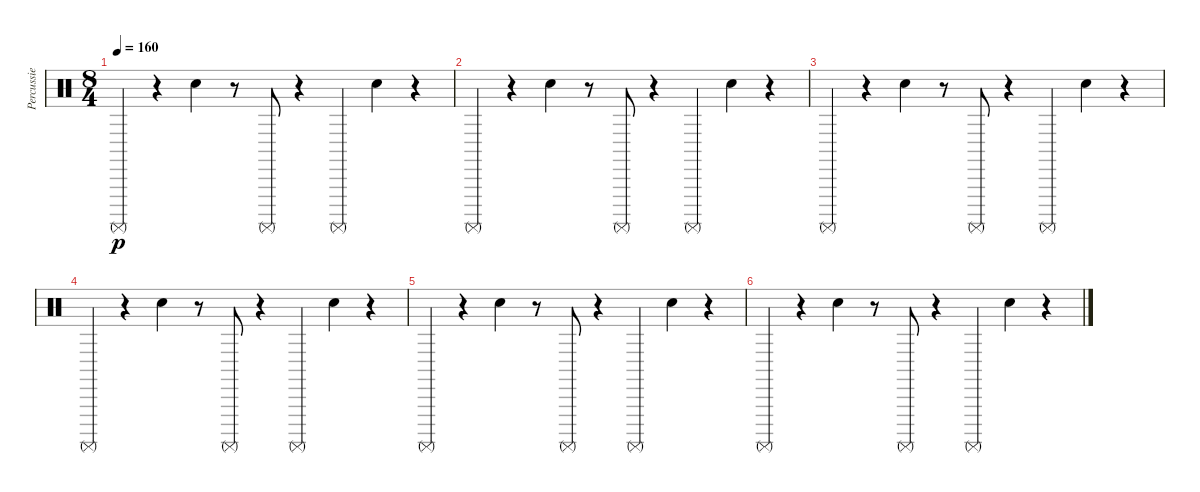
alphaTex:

\track ("Percussie" "Percussie") {instrument percussion}
\staff {score}
\articulation defaults
\ts (8 4)
\tempo 160
\clef neutral
\ks c "Surdo (mute)".4{dy p}
r.4 "Hand Clap (hit)".4 r.8 "Surdo (mute)".8 r.4 "Surdo (mute)".4 "Hand Clap (hit)".4 r.4 |
"Surdo (mute)".4 r.4 "Hand Clap (hit)".4 r.8 "Surdo (mute)".8 r.4 "Surdo (mute)".4 "Hand Clap (hit)".4 r.4 |
"Surdo (mute)".4 r.4 "Hand Clap (hit)".4 r.8 "Surdo (mute)".8 r.4 "Surdo (mute)".4 "Hand Clap (hit)".4 r.4 |
"Surdo (mute)".4 r.4 "Hand Clap (hit)".4 r.8 "Surdo (mute)".8 r.4 "Surdo (mute)".4 "Hand Clap (hit)".4 r.4 |
"Surdo (mute)".4 r.4 "Hand Clap (hit)".4 r.8 "Surdo (mute)".8 r.4 "Surdo (mute)".4 "Hand Clap (hit)".4 r.4 |
"Surdo (mute)".4 r.4 "Hand Clap (hit)".4 r.8 "Surdo (mute)".8 r.4 "Surdo (mute)".4 "Hand Clap (hit)".4 r.4
